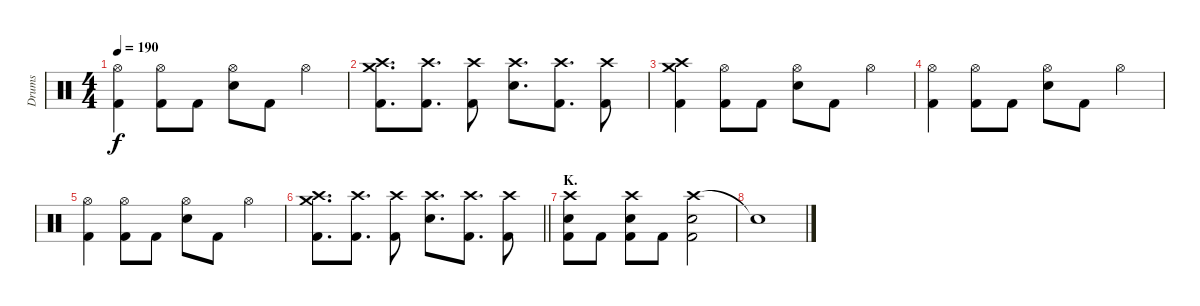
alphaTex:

\track ("Drums" "Drums") {instrument percussion}
\staff {score}
\articulation defaults
\ts (4 4)
\tempo 190
\clef neutral
\ks c
("Hi-Hat (open)" "Kick (hit) 2").4{dy f} ("Hi-Hat (open)" "Kick (hit) 2").8 "Kick (hit) 2".8 ("Hi-Hat (open)" "Electric Snare (hit)").8 "Kick (hit) 2".8 "Hi-Hat (open)".4 |
("Crash medium (hit)" "Crash high (hit)" "Kick (hit) 2").8{d} ("Crash high (hit)" "Kick (hit) 2").8{d} ("Crash high (hit)" "Kick (hit) 2").8 ("Crash high (hit)" "Electric Snare (hit)").8{d} ("Crash high (hit)" "Kick (hit) 2").8{d} ("Crash high (hit)" "Kick (hit) 2").8 |
("Crash medium (hit)" "Crash high (hit)" "Kick (hit) 2").4 ("Hi-Hat (open)" "Kick (hit) 2").8 "Kick (hit) 2".8 ("Hi-Hat (open)" "Electric Snare (hit)").8 "Kick (hit) 2".8 "Hi-Hat (open)".4 |
("Hi-Hat (open)" "Kick (hit) 2").4 ("Hi-Hat (open)" "Kick (hit) 2").8 "Kick (hit) 2".8 ("Hi-Hat (open)" "Electric Snare (hit)").8 "Kick (hit) 2".8 "Hi-Hat (open)".4 |
("Hi-Hat (open)" "Kick (hit) 2").4 ("Hi-Hat (open)" "Kick (hit) 2").8 "Kick (hit) 2".8 ("Hi-Hat (open)" "Electric Snare (hit)").8 "Kick (hit) 2".8 "Hi-Hat (open)".4 |
\barLineRight lightlight
("Crash medium (hit)" "Crash high (hit)" "Kick (hit) 2").8{d} ("Crash high (hit)" "Kick (hit) 2").8{d} ("Crash high (hit)" "Kick (hit) 2").8 ("Crash high (hit)" "Electric Snare (hit)").8{d} ("Crash high (hit)" "Kick (hit) 2").8{d} ("Crash high (hit)" "Kick (hit) 2").8 |
\section ("" "K.")
("Crash high (hit)" "Electric Snare (hit)" "Kick (hit) 2").8 "Kick (hit) 2".8 ("Crash high (hit)" "Electric Snare (hit)" "Kick (hit) 2").8 "Kick (hit) 2".8 ("Crash high (hit)" "Electric Snare (hit)" "Kick (hit) 2").2 |
"Snare (hit)"{t}.1
